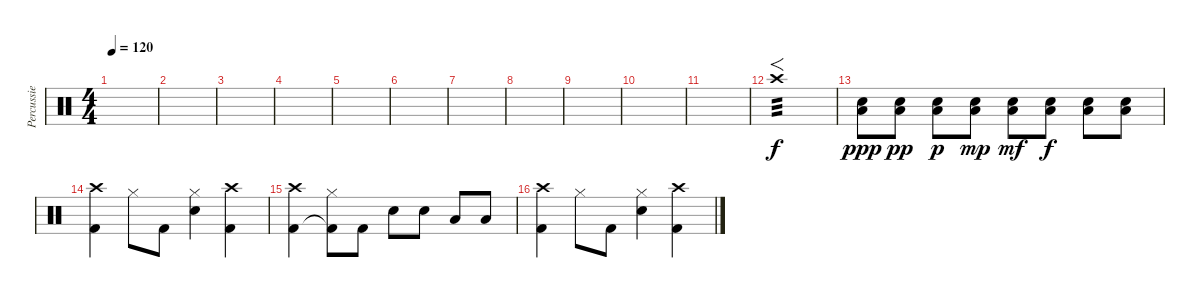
\track ("Percussie" "Percussie") {instrument percussion}
\staff {score}
\articulation defaults
\ts (4 4)
\tempo 120
\clef neutral
\ks c
|
|
|
|
|
|
|
|
|
|
|
"Crash high (hit)".1{f tp 3} |
("Snare (hit) 2" "Low Floor Tom (hit)").8{dy ppp} ("Snare (hit) 2" "Low Floor Tom (hit)").8{dy pp} ("Snare (hit) 2" "Low Floor Tom (hit)").8{dy p} ("Snare (hit) 2" "Low Floor Tom (hit)").8{dy mp} ("Snare (hit) 2" "Low Floor Tom (hit)").8{dy mf} ("Snare (hit) 2" "Low Floor Tom (hit)").8{dy f} ("Snare (hit) 2" "Low Floor Tom (hit)").8 ("Snare (hit) 2" "Low Floor Tom (hit)").8 |
("Crash high (hit)" "Kick (hit) 2").4 "Hi-Hat (closed)".8 "Kick (hit) 2".8 ("Hi-Hat (closed)" "Snare (hit) 2").4 ("Crash high (hit)" "Kick (hit) 2").4 |
("Crash high (hit)" "Kick (hit) 2").4 ("Hi-Hat (closed)" "Kick (hit) 2"{t}).8 "Kick (hit) 2".8 "Snare (hit) 2".8 "Snare (hit) 2".8 "Low Tom (hit)".8 "Low Floor Tom (hit)".8 |
("Crash high (hit)" "Kick (hit) 2").4 "Hi-Hat (closed)".8 "Kick (hit) 2".8 ("Hi-Hat (closed)" "Snare (hit) 2").4 ("Crash high (hit)" "Kick (hit) 2").4
